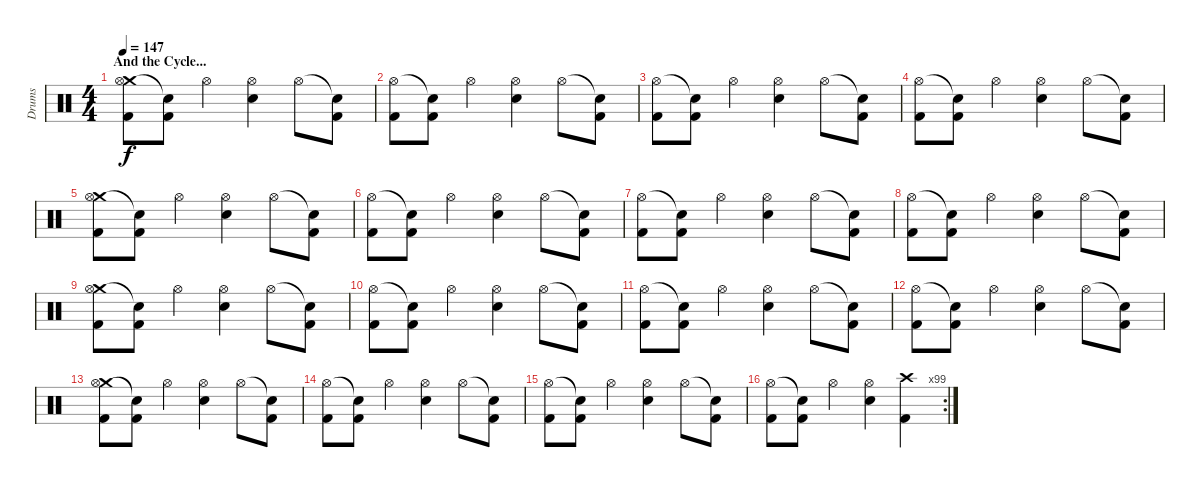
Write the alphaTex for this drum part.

\track ("Drums" "Drums") {instrument percussion}
\staff {score}
\articulation defaults
\ts (4 4)
\section ("" "And the Cycle...")
\tempo 147
\clef neutral
\ks c
("Crash medium (hit)" "Hi-Hat (open)" "Kick (hit) 2").8{dy f} ("Snare (hit)"{t} "Kick (hit) 2").8 "Hi-Hat (open)".4 ("Hi-Hat (open)" "Electric Snare (hit)").4 "Hi-Hat (open)".8 ("Snare (hit)"{t} "Kick (hit) 2").8 |
("Hi-Hat (open)" "Kick (hit) 2").8 ("Snare (hit)"{t} "Kick (hit) 2").8 "Hi-Hat (open)".4 ("Hi-Hat (open)" "Electric Snare (hit)").4 "Hi-Hat (open)".8 ("Snare (hit)"{t} "Kick (hit) 2").8 |
("Hi-Hat (open)" "Kick (hit) 2").8 ("Snare (hit)"{t} "Kick (hit) 2").8 "Hi-Hat (open)".4 ("Hi-Hat (open)" "Electric Snare (hit)").4 "Hi-Hat (open)".8 ("Snare (hit)"{t} "Kick (hit) 2").8 |
("Hi-Hat (open)" "Kick (hit) 2").8 ("Snare (hit)"{t} "Kick (hit) 2").8 "Hi-Hat (open)".4 ("Hi-Hat (open)" "Electric Snare (hit)").4 "Hi-Hat (open)".8 ("Snare (hit)"{t} "Kick (hit) 2").8 |
("Crash medium (hit)" "Hi-Hat (open)" "Kick (hit) 2").8 ("Snare (hit)"{t} "Kick (hit) 2").8 "Hi-Hat (open)".4 ("Hi-Hat (open)" "Electric Snare (hit)").4 "Hi-Hat (open)".8 ("Snare (hit)"{t} "Kick (hit) 2").8 |
("Hi-Hat (open)" "Kick (hit) 2").8 ("Snare (hit)"{t} "Kick (hit) 2").8 "Hi-Hat (open)".4 ("Hi-Hat (open)" "Electric Snare (hit)").4 "Hi-Hat (open)".8 ("Snare (hit)"{t} "Kick (hit) 2").8 |
("Hi-Hat (open)" "Kick (hit) 2").8 ("Snare (hit)"{t} "Kick (hit) 2").8 "Hi-Hat (open)".4 ("Hi-Hat (open)" "Electric Snare (hit)").4 "Hi-Hat (open)".8 ("Snare (hit)"{t} "Kick (hit) 2").8 |
("Hi-Hat (open)" "Kick (hit) 2").8 ("Snare (hit)"{t} "Kick (hit) 2").8 "Hi-Hat (open)".4 ("Hi-Hat (open)" "Electric Snare (hit)").4 "Hi-Hat (open)".8 ("Snare (hit)"{t} "Kick (hit) 2").8 |
("Crash medium (hit)" "Hi-Hat (open)" "Kick (hit) 2").8 ("Snare (hit)"{t} "Kick (hit) 2").8 "Hi-Hat (open)".4 ("Hi-Hat (open)" "Electric Snare (hit)").4 "Hi-Hat (open)".8 ("Snare (hit)"{t} "Kick (hit) 2").8 |
("Hi-Hat (open)" "Kick (hit) 2").8 ("Snare (hit)"{t} "Kick (hit) 2").8 "Hi-Hat (open)".4 ("Hi-Hat (open)" "Electric Snare (hit)").4 "Hi-Hat (open)".8 ("Snare (hit)"{t} "Kick (hit) 2").8 |
("Hi-Hat (open)" "Kick (hit) 2").8 ("Snare (hit)"{t} "Kick (hit) 2").8 "Hi-Hat (open)".4 ("Hi-Hat (open)" "Electric Snare (hit)").4 "Hi-Hat (open)".8 ("Snare (hit)"{t} "Kick (hit) 2").8 |
("Hi-Hat (open)" "Kick (hit) 2").8 ("Snare (hit)"{t} "Kick (hit) 2").8 "Hi-Hat (open)".4 ("Hi-Hat (open)" "Electric Snare (hit)").4 "Hi-Hat (open)".8 ("Snare (hit)"{t} "Kick (hit) 2").8 |
("Crash medium (hit)" "Hi-Hat (open)" "Kick (hit) 2").8 ("Snare (hit)"{t} "Kick (hit) 2").8 "Hi-Hat (open)".4 ("Hi-Hat (open)" "Electric Snare (hit)").4 "Hi-Hat (open)".8 ("Snare (hit)"{t} "Kick (hit) 2").8 |
("Hi-Hat (open)" "Kick (hit) 2").8 ("Snare (hit)"{t} "Kick (hit) 2").8 "Hi-Hat (open)".4 ("Hi-Hat (open)" "Electric Snare (hit)").4 "Hi-Hat (open)".8 ("Snare (hit)"{t} "Kick (hit) 2").8 |
("Hi-Hat (open)" "Kick (hit) 2").8 ("Snare (hit)"{t} "Kick (hit) 2").8 "Hi-Hat (open)".4 ("Hi-Hat (open)" "Electric Snare (hit)").4 "Hi-Hat (open)".8 ("Snare (hit)"{t} "Kick (hit) 2").8 |
\rc 99
("Hi-Hat (open)" "Kick (hit) 2").8 ("Snare (hit)"{t} "Kick (hit) 2").8 "Hi-Hat (open)".4 ("Hi-Hat (open)" "Electric Snare (hit)").4 ("Crash high (hit)" "Kick (hit) 2").4
